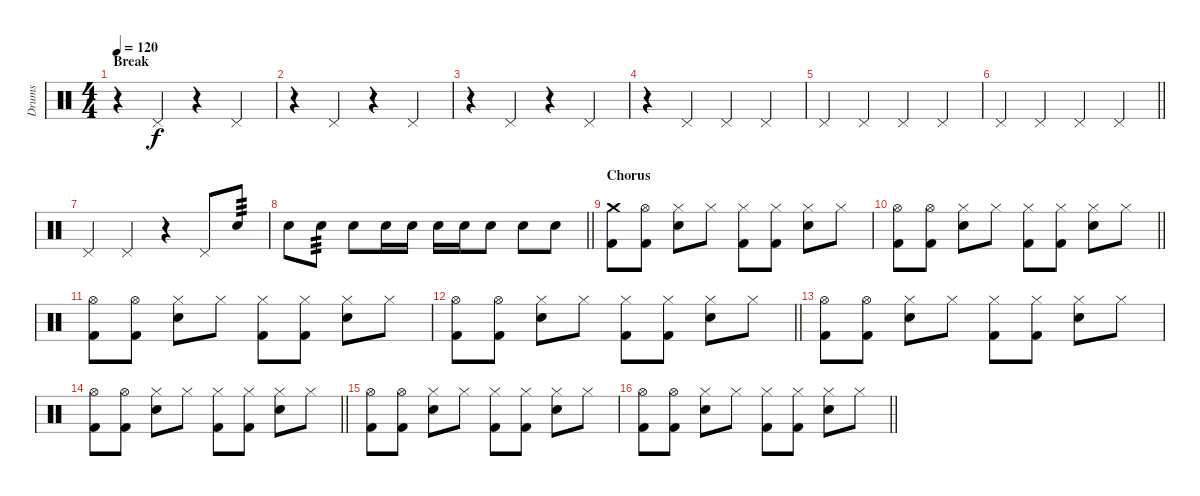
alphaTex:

\track ("Drums" "Drums") {instrument percussion}
\staff {score}
\articulation defaults
\ts (4 4)
\section ("" "Break")
\tempo 120
\clef neutral
\ks c
r.4{dy f} "Pedal Hi-Hat (hit)".4 r.4 "Pedal Hi-Hat (hit)".4 |
r.4 "Pedal Hi-Hat (hit)".4 r.4 "Pedal Hi-Hat (hit)".4 |
r.4 "Pedal Hi-Hat (hit)".4 r.4 "Pedal Hi-Hat (hit)".4 |
r.4 "Pedal Hi-Hat (hit)".4 "Pedal Hi-Hat (hit)".4 "Pedal Hi-Hat (hit)".4 |
"Pedal Hi-Hat (hit)".4 "Pedal Hi-Hat (hit)".4 "Pedal Hi-Hat (hit)".4 "Pedal Hi-Hat (hit)".4 |
\barLineRight lightlight "Pedal Hi-Hat (hit)".4 "Pedal Hi-Hat (hit)".4 "Pedal Hi-Hat (hit)".4 "Pedal Hi-Hat (hit)".4
|
"Pedal Hi-Hat (hit)".4 "Pedal Hi-Hat (hit)".4 r.4 "Pedal Hi-Hat (hit)".8 "Snare (hit) 2".8{tp 3} |
\barLineRight lightlight "Snare (hit) 2".8 "Snare (hit) 2".8{tp 3} "Snare (hit) 2".8 "Snare (hit) 2".16 "Snare (hit) 2".16 "Snare (hit) 2".16 "Snare (hit) 2".16 "Snare (hit) 2".8 "Snare (hit) 2".8 "Snare (hit) 2".8
|
\section ("" "Chorus")
("Crash medium (hit)" "Kick (hit) 2").8 ("Hi-Hat (open)" "Kick (hit) 2").8 ("Hi-Hat (closed)" "Electric Snare (hit)").8 "Hi-Hat (closed)".8 ("Hi-Hat (closed)" "Kick (hit) 2").8 ("Hi-Hat (closed)" "Kick (hit) 2").8 ("Hi-Hat (closed)" "Electric Snare (hit)").8 "Hi-Hat (closed)".8 |
\barLineRight lightlight
("Hi-Hat (open)" "Kick (hit) 2").8 ("Hi-Hat (open)" "Kick (hit) 2").8 ("Hi-Hat (closed)" "Electric Snare (hit)").8 "Hi-Hat (closed)".8 ("Hi-Hat (closed)" "Kick (hit) 2").8 ("Hi-Hat (closed)" "Kick (hit) 2").8 ("Hi-Hat (closed)" "Electric Snare (hit)").8 "Hi-Hat (closed)".8 |
("Hi-Hat (open)" "Kick (hit) 2").8 ("Hi-Hat (open)" "Kick (hit) 2").8 ("Hi-Hat (closed)" "Electric Snare (hit)").8 "Hi-Hat (closed)".8 ("Hi-Hat (closed)" "Kick (hit) 2").8 ("Hi-Hat (closed)" "Kick (hit) 2").8 ("Hi-Hat (closed)" "Electric Snare (hit)").8 "Hi-Hat (closed)".8 |
\barLineRight lightlight
("Hi-Hat (open)" "Kick (hit) 2").8 ("Hi-Hat (open)" "Kick (hit) 2").8 ("Hi-Hat (closed)" "Electric Snare (hit)").8 "Hi-Hat (closed)".8 ("Hi-Hat (closed)" "Kick (hit) 2").8 ("Hi-Hat (closed)" "Kick (hit) 2").8 ("Hi-Hat (closed)" "Electric Snare (hit)").8 "Hi-Hat (closed)".8 |
("Hi-Hat (open)" "Kick (hit) 2").8 ("Hi-Hat (open)" "Kick (hit) 2").8 ("Hi-Hat (closed)" "Electric Snare (hit)").8 "Hi-Hat (closed)".8 ("Hi-Hat (closed)" "Kick (hit) 2").8 ("Hi-Hat (closed)" "Kick (hit) 2").8 ("Hi-Hat (closed)" "Electric Snare (hit)").8 "Hi-Hat (closed)".8 |
\barLineRight lightlight
("Hi-Hat (open)" "Kick (hit) 2").8 ("Hi-Hat (open)" "Kick (hit) 2").8 ("Hi-Hat (closed)" "Electric Snare (hit)").8 "Hi-Hat (closed)".8 ("Hi-Hat (closed)" "Kick (hit) 2").8 ("Hi-Hat (closed)" "Kick (hit) 2").8 ("Hi-Hat (closed)" "Electric Snare (hit)").8 "Hi-Hat (closed)".8 |
("Hi-Hat (open)" "Kick (hit) 2").8 ("Hi-Hat (open)" "Kick (hit) 2").8 ("Hi-Hat (closed)" "Electric Snare (hit)").8 "Hi-Hat (closed)".8 ("Hi-Hat (closed)" "Kick (hit) 2").8 ("Hi-Hat (closed)" "Kick (hit) 2").8 ("Hi-Hat (closed)" "Electric Snare (hit)").8 "Hi-Hat (closed)".8 |
\barLineRight lightlight
("Hi-Hat (open)" "Kick (hit) 2").8 ("Hi-Hat (open)" "Kick (hit) 2").8 ("Hi-Hat (closed)" "Electric Snare (hit)").8 "Hi-Hat (closed)".8 ("Hi-Hat (closed)" "Kick (hit) 2").8 ("Hi-Hat (closed)" "Kick (hit) 2").8 ("Hi-Hat (closed)" "Electric Snare (hit)").8 "Hi-Hat (closed)".8
